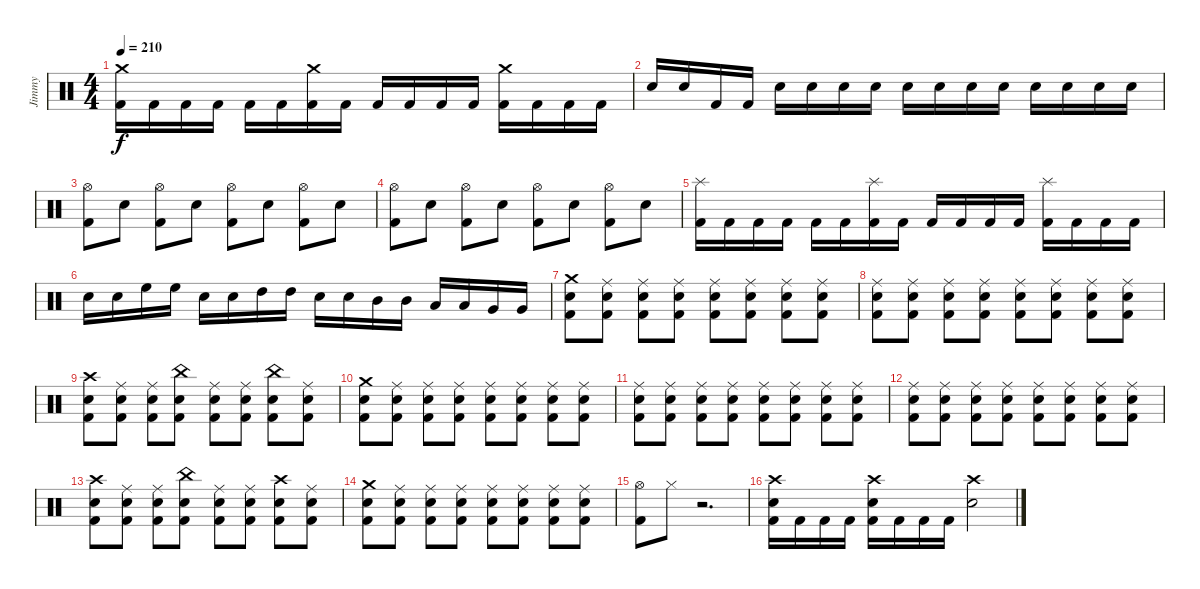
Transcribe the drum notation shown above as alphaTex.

\track ("Jimmy" "Jimmy") {instrument percussion}
\staff {score}
\articulation defaults
\ts (4 4)
\tempo 210
\clef neutral
\ks c
("Crash medium (hit)" "Kick (hit) 2").16{dy f} "Kick (hit) 2".16 "Kick (hit) 2".16 "Kick (hit) 2".16 "Kick (hit) 2".16 "Kick (hit) 2".16 ("Crash medium (hit)" "Kick (hit) 2").16 "Kick (hit) 2".16 "Kick (hit) 2".16 "Kick (hit) 2".16 "Kick (hit) 2".16 "Kick (hit) 2".16 ("Crash medium (hit)" "Kick (hit) 2").16 "Kick (hit) 2".16 "Kick (hit) 2".16 "Kick (hit) 2".16 |
"Electric Snare (hit)".16 "Electric Snare (hit)".16 "Kick (hit) 2".16 "Kick (hit) 2".16 "Electric Snare (hit)".16 "Electric Snare (hit)".16 "Electric Snare (hit)".16 "Electric Snare (hit)".16 "Electric Snare (hit)".16 "Electric Snare (hit)".16 "Electric Snare (hit)".16 "Electric Snare (hit)".16 "Electric Snare (hit)".16 "Electric Snare (hit)".16 "Electric Snare (hit)".16 "Electric Snare (hit)".16 |
("Hi-Hat (open)" "Kick (hit) 2").8 "Electric Snare (hit)".8 ("Hi-Hat (open)" "Kick (hit) 2").8 "Electric Snare (hit)".8 ("Hi-Hat (open)" "Kick (hit) 2").8 "Electric Snare (hit)".8 ("Hi-Hat (open)" "Kick (hit) 2").8 "Electric Snare (hit)".8 |
("Hi-Hat (open)" "Kick (hit) 2").8 "Electric Snare (hit)".8 ("Hi-Hat (open)" "Kick (hit) 2").8 "Electric Snare (hit)".8 ("Hi-Hat (open)" "Kick (hit) 2").8 "Electric Snare (hit)".8 ("Hi-Hat (open)" "Kick (hit) 2").8 "Electric Snare (hit)".8 |
("Splash (hit)" "Kick (hit) 2").16 "Kick (hit) 2".16 "Kick (hit) 2".16 "Kick (hit) 2".16 "Kick (hit) 2".16 "Kick (hit) 2".16 ("Splash (hit)" "Kick (hit) 2").16 "Kick (hit) 2".16 "Kick (hit) 2".16 "Kick (hit) 2".16 "Kick (hit) 2".16 "Kick (hit) 2".16 ("Splash (hit)" "Kick (hit) 2").16 "Kick (hit) 2".16 "Kick (hit) 2".16 "Kick (hit) 2".16 |
"Electric Snare (hit)".16 "Electric Snare (hit)".16 "High Floor Tom (hit)".16 "High Floor Tom (hit)".16 "Electric Snare (hit)".16 "Electric Snare (hit)".16 "High Tom (hit)".16 "High Tom (hit)".16 "Electric Snare (hit)".16 "Electric Snare (hit)".16 "Mid Tom (hit)".16 "Mid Tom (hit)".16 "Low Tom (hit)".16 "Low Tom (hit)".16 "Very Low Tom (hit)".16 "Very Low Tom (hit)".16 |
("Crash medium (hit)" "Electric Snare (hit)" "Kick (hit) 2").8 ("Ride (middle)" "Electric Snare (hit)" "Kick (hit) 2").8 ("Ride (middle)" "Electric Snare (hit)" "Kick (hit) 2").8 ("Ride (middle)" "Electric Snare (hit)" "Kick (hit) 2").8 ("Ride (middle)" "Electric Snare (hit)" "Kick (hit) 2").8 ("Ride (middle)" "Electric Snare (hit)" "Kick (hit) 2").8 ("Ride (middle)" "Electric Snare (hit)" "Kick (hit) 2").8 ("Ride (middle)" "Electric Snare (hit)" "Kick (hit) 2").8 |
("Ride (middle)" "Electric Snare (hit)" "Kick (hit) 2").8 ("Ride (middle)" "Electric Snare (hit)" "Kick (hit) 2").8 ("Ride (middle)" "Electric Snare (hit)" "Kick (hit) 2").8 ("Ride (middle)" "Electric Snare (hit)" "Kick (hit) 2").8 ("Ride (middle)" "Electric Snare (hit)" "Kick (hit) 2").8 ("Ride (middle)" "Electric Snare (hit)" "Kick (hit) 2").8 ("Ride (middle)" "Electric Snare (hit)" "Kick (hit) 2").8 ("Ride (middle)" "Electric Snare (hit)" "Kick (hit) 2").8 |
("Crash high (hit)" "Electric Snare (hit)" "Kick (hit) 2").8 ("Ride (middle)" "Electric Snare (hit)" "Kick (hit) 2").8 ("Ride (middle)" "Electric Snare (hit)" "Kick (hit) 2").8 ("China (hit)" "Electric Snare (hit)" "Kick (hit) 2").8 ("Ride (middle)" "Electric Snare (hit)" "Kick (hit) 2").8 ("Ride (middle)" "Electric Snare (hit)" "Kick (hit) 2").8 ("China (hit)" "Electric Snare (hit)" "Kick (hit) 2").8 ("Ride (middle)" "Electric Snare (hit)" "Kick (hit) 2").8 |
("Crash medium (hit)" "Electric Snare (hit)" "Kick (hit) 2").8 ("Ride (middle)" "Electric Snare (hit)" "Kick (hit) 2").8 ("Ride (middle)" "Electric Snare (hit)" "Kick (hit) 2").8 ("Ride (middle)" "Electric Snare (hit)" "Kick (hit) 2").8 ("Ride (middle)" "Electric Snare (hit)" "Kick (hit) 2").8 ("Ride (middle)" "Electric Snare (hit)" "Kick (hit) 2").8 ("Ride (middle)" "Electric Snare (hit)" "Kick (hit) 2").8 ("Ride (middle)" "Electric Snare (hit)" "Kick (hit) 2").8 |
("Ride (middle)" "Electric Snare (hit)" "Kick (hit) 2").8 ("Ride (middle)" "Electric Snare (hit)" "Kick (hit) 2").8 ("Ride (middle)" "Electric Snare (hit)" "Kick (hit) 2").8 ("Ride (middle)" "Electric Snare (hit)" "Kick (hit) 2").8 ("Ride (middle)" "Electric Snare (hit)" "Kick (hit) 2").8 ("Ride (middle)" "Electric Snare (hit)" "Kick (hit) 2").8 ("Ride (middle)" "Electric Snare (hit)" "Kick (hit) 2").8 ("Ride (middle)" "Electric Snare (hit)" "Kick (hit) 2").8 |
("Ride (middle)" "Electric Snare (hit)" "Kick (hit) 2").8 ("Ride (middle)" "Electric Snare (hit)" "Kick (hit) 2").8 ("Ride (middle)" "Electric Snare (hit)" "Kick (hit) 2").8 ("Ride (middle)" "Electric Snare (hit)" "Kick (hit) 2").8 ("Ride (middle)" "Electric Snare (hit)" "Kick (hit) 2").8 ("Ride (middle)" "Electric Snare (hit)" "Kick (hit) 2").8 ("Ride (middle)" "Electric Snare (hit)" "Kick (hit) 2").8 ("Ride (middle)" "Electric Snare (hit)" "Kick (hit) 2").8 |
("Crash high (hit)" "Electric Snare (hit)" "Kick (hit) 2").8 ("Ride (middle)" "Electric Snare (hit)" "Kick (hit) 2").8 ("Ride (middle)" "Electric Snare (hit)" "Kick (hit) 2").8 ("China (hit)" "Electric Snare (hit)" "Kick (hit) 2").8 ("Ride (middle)" "Electric Snare (hit)" "Kick (hit) 2").8 ("Ride (middle)" "Electric Snare (hit)" "Kick (hit) 2").8 ("Crash high (hit)" "Electric Snare (hit)" "Kick (hit) 2").8 ("Ride (middle)" "Electric Snare (hit)" "Kick (hit) 2").8 |
("Crash medium (hit)" "Electric Snare (hit)" "Kick (hit) 2").8 ("Ride (middle)" "Electric Snare (hit)" "Kick (hit) 2").8 ("Ride (middle)" "Electric Snare (hit)" "Kick (hit) 2").8 ("Ride (middle)" "Electric Snare (hit)" "Kick (hit) 2").8 ("Ride (middle)" "Electric Snare (hit)" "Kick (hit) 2").8 ("Ride (middle)" "Electric Snare (hit)" "Kick (hit) 2").8 ("Ride (middle)" "Electric Snare (hit)" "Kick (hit) 2").8 ("Ride (middle)" "Electric Snare (hit)" "Kick (hit) 2").8 |
("Hi-Hat (open)" "Kick (hit) 2").8 "Hi-Hat (closed)".8 r.2{d} |
("Crash high (hit)" "Electric Snare (hit)" "Kick (hit) 2").16 "Kick (hit) 2".16 "Kick (hit) 2".16 "Kick (hit) 2".16 ("Crash high (hit)" "Electric Snare (hit)" "Kick (hit) 2").16 "Kick (hit) 2".16 "Kick (hit) 2".16 "Kick (hit) 2".16 ("Crash high (hit)" "Electric Snare (hit)").2
